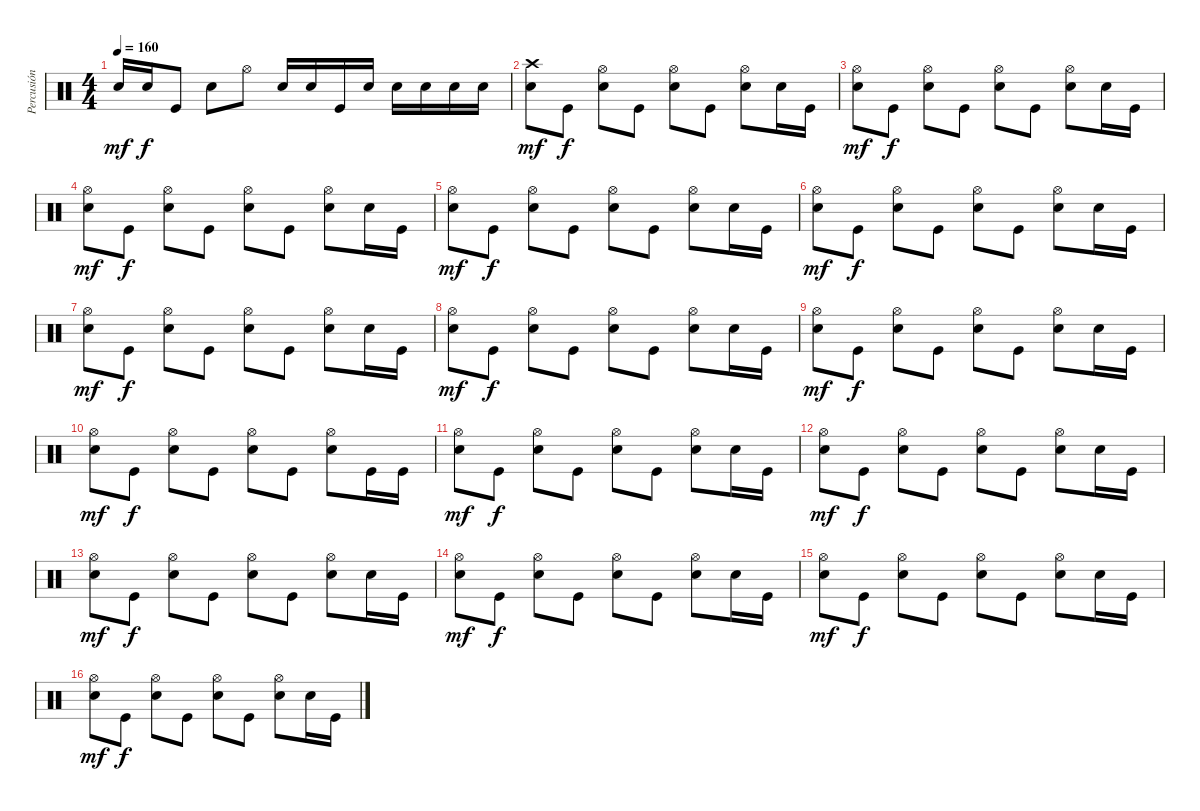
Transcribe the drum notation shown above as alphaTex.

\track ("Percusión" "Percusión") {instrument percussion}
\staff {score}
\articulation defaults
\ts (4 4)
\tempo 160
\clef neutral
\ks c "Electric Snare (hit)".16{dy mf} "Electric Snare (hit)".16{dy f} "Kick (hit)".8 "Electric Snare (hit)".8 "Hi-Hat (open)".8 "Electric Snare (hit)".16 "Electric Snare (hit)".16 "Kick (hit)".16 "Electric Snare (hit)".16 "Electric Snare (hit)".16 "Electric Snare (hit)".16 "Electric Snare (hit)".16 "Electric Snare (hit)".16
|
("Crash high (hit)" "Electric Snare (hit)").8{dy mf} "Kick (hit)".8{dy f} ("Hi-Hat (open)" "Electric Snare (hit)").8 "Kick (hit)".8 ("Hi-Hat (open)" "Electric Snare (hit)").8 "Kick (hit)".8 ("Hi-Hat (open)" "Electric Snare (hit)").8 "Snare (hit)".16 "Kick (hit)".16 |
("Hi-Hat (open)" "Electric Snare (hit)").8{dy mf} "Kick (hit)".8{dy f} ("Hi-Hat (open)" "Electric Snare (hit)").8 "Kick (hit)".8 ("Hi-Hat (open)" "Electric Snare (hit)").8 "Kick (hit)".8 ("Hi-Hat (open)" "Electric Snare (hit)").8 "Snare (hit)".16 "Kick (hit)".16 |
("Hi-Hat (open)" "Electric Snare (hit)").8{dy mf} "Kick (hit)".8{dy f} ("Hi-Hat (open)" "Electric Snare (hit)").8 "Kick (hit)".8 ("Hi-Hat (open)" "Electric Snare (hit)").8 "Kick (hit)".8 ("Hi-Hat (open)" "Electric Snare (hit)").8 "Snare (hit)".16 "Kick (hit)".16 |
("Hi-Hat (open)" "Electric Snare (hit)").8{dy mf} "Kick (hit)".8{dy f} ("Hi-Hat (open)" "Electric Snare (hit)").8 "Kick (hit)".8 ("Hi-Hat (open)" "Electric Snare (hit)").8 "Kick (hit)".8 ("Hi-Hat (open)" "Electric Snare (hit)").8 "Snare (hit)".16 "Kick (hit)".16 |
("Hi-Hat (open)" "Electric Snare (hit)").8{dy mf} "Kick (hit)".8{dy f} ("Hi-Hat (open)" "Electric Snare (hit)").8 "Kick (hit)".8 ("Hi-Hat (open)" "Electric Snare (hit)").8 "Kick (hit)".8 ("Hi-Hat (open)" "Electric Snare (hit)").8 "Snare (hit)".16 "Kick (hit)".16 |
("Hi-Hat (open)" "Electric Snare (hit)").8{dy mf} "Kick (hit)".8{dy f} ("Hi-Hat (open)" "Electric Snare (hit)").8 "Kick (hit)".8 ("Hi-Hat (open)" "Electric Snare (hit)").8 "Kick (hit)".8 ("Hi-Hat (open)" "Electric Snare (hit)").8 "Snare (hit)".16 "Kick (hit)".16 |
("Hi-Hat (open)" "Electric Snare (hit)").8{dy mf} "Kick (hit)".8{dy f} ("Hi-Hat (open)" "Electric Snare (hit)").8 "Kick (hit)".8 ("Hi-Hat (open)" "Electric Snare (hit)").8 "Kick (hit)".8 ("Hi-Hat (open)" "Electric Snare (hit)").8 "Snare (hit)".16 "Kick (hit)".16 |
("Hi-Hat (open)" "Electric Snare (hit)").8{dy mf} "Kick (hit)".8{dy f} ("Hi-Hat (open)" "Electric Snare (hit)").8 "Kick (hit)".8 ("Hi-Hat (open)" "Electric Snare (hit)").8 "Kick (hit)".8 ("Hi-Hat (open)" "Electric Snare (hit)").8 "Snare (hit)".16 "Kick (hit)".16 |
("Hi-Hat (open)" "Electric Snare (hit)").8{dy mf} "Kick (hit)".8{dy f} ("Hi-Hat (open)" "Electric Snare (hit)").8 "Kick (hit)".8 ("Hi-Hat (open)" "Electric Snare (hit)").8 "Kick (hit)".8 ("Hi-Hat (open)" "Electric Snare (hit)").8 "Kick (hit)".16 "Kick (hit)".16 |
("Hi-Hat (open)" "Electric Snare (hit)").8{dy mf} "Kick (hit)".8{dy f} ("Hi-Hat (open)" "Electric Snare (hit)").8 "Kick (hit)".8 ("Hi-Hat (open)" "Electric Snare (hit)").8 "Kick (hit)".8 ("Hi-Hat (open)" "Electric Snare (hit)").8 "Snare (hit)".16 "Kick (hit)".16 |
("Hi-Hat (open)" "Electric Snare (hit)").8{dy mf} "Kick (hit)".8{dy f} ("Hi-Hat (open)" "Electric Snare (hit)").8 "Kick (hit)".8 ("Hi-Hat (open)" "Electric Snare (hit)").8 "Kick (hit)".8 ("Hi-Hat (open)" "Electric Snare (hit)").8 "Snare (hit)".16 "Kick (hit)".16 |
("Hi-Hat (open)" "Electric Snare (hit)").8{dy mf} "Kick (hit)".8{dy f} ("Hi-Hat (open)" "Electric Snare (hit)").8 "Kick (hit)".8 ("Hi-Hat (open)" "Electric Snare (hit)").8 "Kick (hit)".8 ("Hi-Hat (open)" "Electric Snare (hit)").8 "Snare (hit)".16 "Kick (hit)".16 |
("Hi-Hat (open)" "Electric Snare (hit)").8{dy mf} "Kick (hit)".8{dy f} ("Hi-Hat (open)" "Electric Snare (hit)").8 "Kick (hit)".8 ("Hi-Hat (open)" "Electric Snare (hit)").8 "Kick (hit)".8 ("Hi-Hat (open)" "Electric Snare (hit)").8 "Snare (hit)".16 "Kick (hit)".16 |
("Hi-Hat (open)" "Electric Snare (hit)").8{dy mf} "Kick (hit)".8{dy f} ("Hi-Hat (open)" "Electric Snare (hit)").8 "Kick (hit)".8 ("Hi-Hat (open)" "Electric Snare (hit)").8 "Kick (hit)".8 ("Hi-Hat (open)" "Electric Snare (hit)").8 "Snare (hit)".16 "Kick (hit)".16 |
("Hi-Hat (open)" "Electric Snare (hit)").8{dy mf} "Kick (hit)".8{dy f} ("Hi-Hat (open)" "Electric Snare (hit)").8 "Kick (hit)".8 ("Hi-Hat (open)" "Electric Snare (hit)").8 "Kick (hit)".8 ("Hi-Hat (open)" "Electric Snare (hit)").8 "Snare (hit)".16 "Kick (hit)".16
